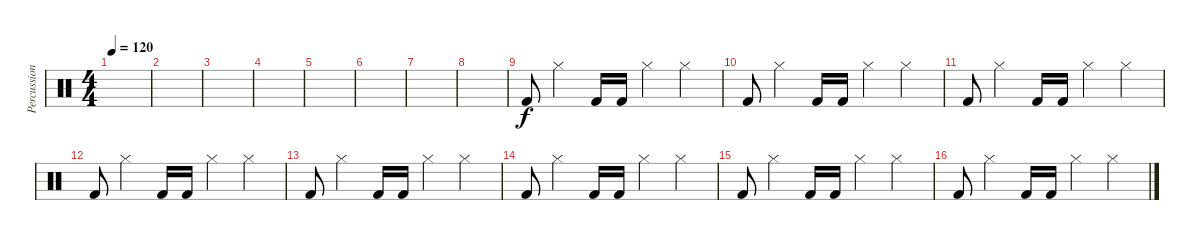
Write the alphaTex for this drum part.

\track ("Percussion" "Percussion") {instrument percussion}
\staff {score}
\articulation defaults
\ts (4 4)
\tempo 120
\clef neutral
\ks c
|
|
|
|
|
|
|
|
"Kick (hit) 2".8 "Hi-Hat (closed)".4 "Kick (hit) 2".16 "Kick (hit) 2".16 "Hi-Hat (closed)".4 "Hi-Hat (closed)".4 |
"Kick (hit) 2".8 "Hi-Hat (closed)".4 "Kick (hit) 2".16 "Kick (hit) 2".16 "Hi-Hat (closed)".4 "Hi-Hat (closed)".4 |
"Kick (hit) 2".8 "Hi-Hat (closed)".4 "Kick (hit) 2".16 "Kick (hit) 2".16 "Hi-Hat (closed)".4 "Hi-Hat (closed)".4 |
"Kick (hit) 2".8 "Hi-Hat (closed)".4 "Kick (hit) 2".16 "Kick (hit) 2".16 "Hi-Hat (closed)".4 "Hi-Hat (closed)".4 |
"Kick (hit) 2".8 "Hi-Hat (closed)".4 "Kick (hit) 2".16 "Kick (hit) 2".16 "Hi-Hat (closed)".4 "Hi-Hat (closed)".4 |
"Kick (hit) 2".8 "Hi-Hat (closed)".4 "Kick (hit) 2".16 "Kick (hit) 2".16 "Hi-Hat (closed)".4 "Hi-Hat (closed)".4 |
"Kick (hit) 2".8 "Hi-Hat (closed)".4 "Kick (hit) 2".16 "Kick (hit) 2".16 "Hi-Hat (closed)".4 "Hi-Hat (closed)".4 |
"Kick (hit) 2".8 "Hi-Hat (closed)".4 "Kick (hit) 2".16 "Kick (hit) 2".16 "Hi-Hat (closed)".4 "Hi-Hat (closed)".4
